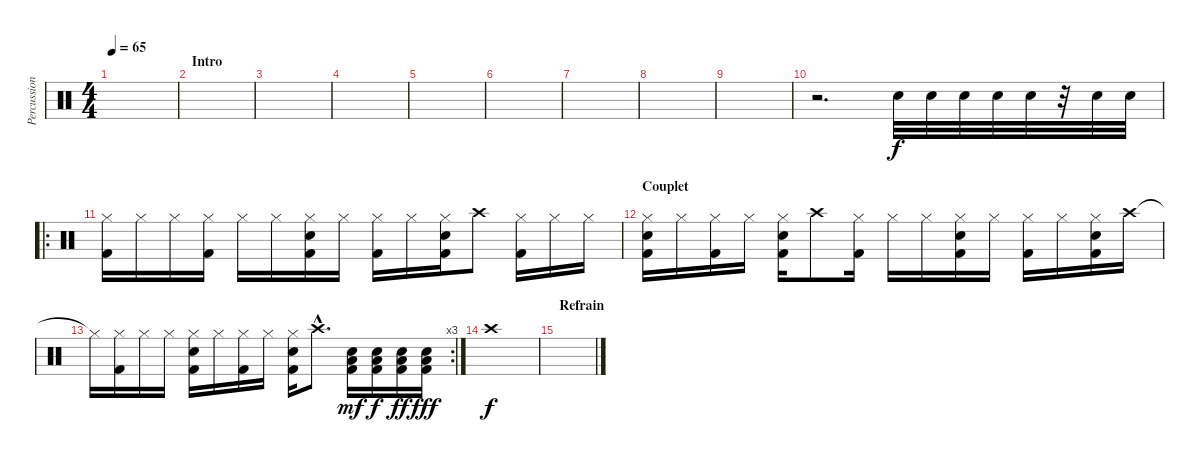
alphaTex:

\track ("Percussions" "Percussion") {instrument percussion}
\staff {score}
\articulation defaults
\ts (4 4)
\tempo 65
\clef neutral
\ks c
|
\section ("" "Intro")
|
|
|
|
|
|
|
|
r.2{d} "Snare (hit) 2".32 "Snare (hit) 2".32 "Snare (hit) 2".32 "Snare (hit) 2".32 "Snare (hit) 2".32 r.32 "Snare (hit) 2".32 "Snare (hit) 2".32 |
\ro
("Hi-Hat (closed)" "Kick (hit) 2").16 "Hi-Hat (closed)".16 "Hi-Hat (closed)".16 ("Hi-Hat (closed)" "Kick (hit) 2").16 "Hi-Hat (closed)".16 "Hi-Hat (closed)".16 ("Hi-Hat (closed)" "Snare (hit) 2" "Kick (hit) 2").16 "Hi-Hat (closed)".16 ("Hi-Hat (closed)" "Kick (hit) 2").16 "Hi-Hat (closed)".16 ("Hi-Hat (closed)" "Snare (hit) 2" "Kick (hit) 2").16 "Crash high (hit)".8 ("Hi-Hat (closed)" "Kick (hit) 2").16 "Hi-Hat (closed)".16 "Hi-Hat (closed)".16 |
\section ("" "Couplet")
("Hi-Hat (closed)" "Snare (hit) 2" "Kick (hit) 2").16 "Hi-Hat (closed)".16 ("Hi-Hat (closed)" "Kick (hit) 2").16 "Hi-Hat (closed)".16 ("Hi-Hat (closed)" "Snare (hit) 2" "Kick (hit) 2").16 "Crash high (hit)".8 ("Hi-Hat (closed)" "Kick (hit) 2").16 "Hi-Hat (closed)".16 "Hi-Hat (closed)".16 ("Hi-Hat (closed)" "Snare (hit) 2" "Kick (hit) 2").16 "Hi-Hat (closed)".16 ("Hi-Hat (closed)" "Kick (hit) 2").16 "Hi-Hat (closed)".16 ("Hi-Hat (closed)" "Snare (hit) 2" "Kick (hit) 2").16 "Crash high (hit)".16 |
\rc 3 "Hi-Hat (closed)"{t}.16
("Hi-Hat (closed)" "Kick (hit) 2").16 "Hi-Hat (closed)".16 "Hi-Hat (closed)".16 ("Hi-Hat (closed)" "Snare (hit) 2" "Kick (hit) 2").16 "Hi-Hat (closed)".16 ("Hi-Hat (closed)" "Kick (hit) 2").16 "Hi-Hat (closed)".16 ("Hi-Hat (closed)" "Snare (hit) 2" "Kick (hit) 2").16 "Crash high (hit)"{hac}.8{d} ("Low Tom (hit)" "Snare (hit) 2" "Kick (hit) 2").16{dy mf} ("Low Tom (hit)" "Snare (hit) 2" "Kick (hit) 2").16{dy f} ("Low Tom (hit)" "Snare (hit) 2" "Kick (hit) 2").16{dy ff} ("Low Tom (hit)" "Snare (hit) 2" "Kick (hit) 2").16{dy fff} |
"Crash high (hit)".1{dy f} |
\section ("" "Refrain")
